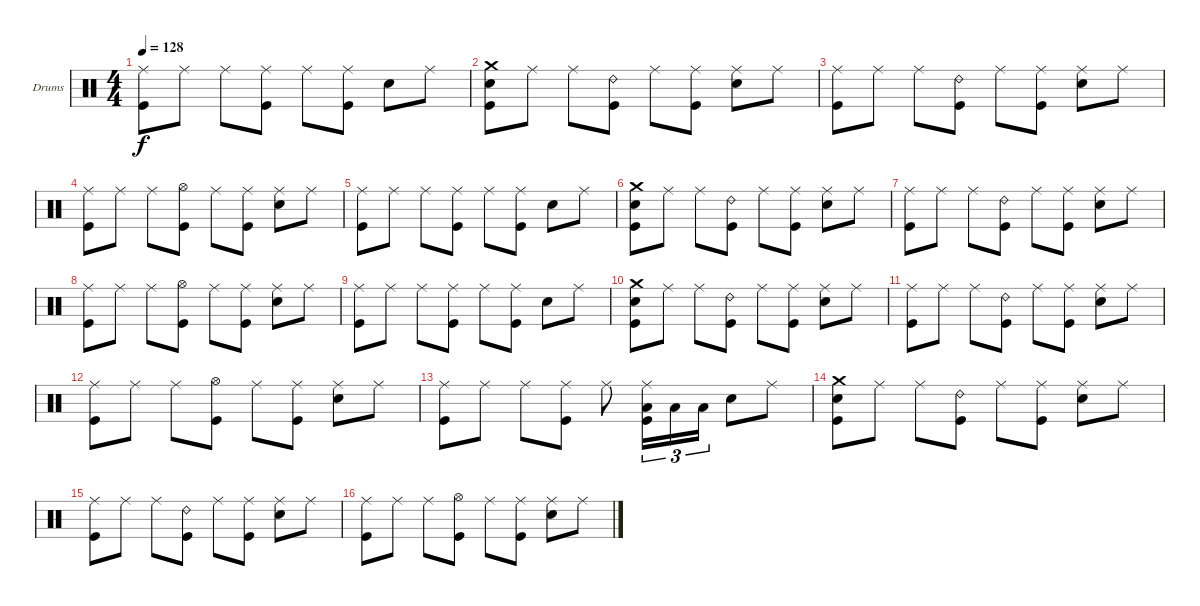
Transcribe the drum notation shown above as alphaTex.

\defaultSystemsLayout 4
\bracketExtendMode nobrackets
\firstSystemTrackNameOrientation horizontal
\otherSystemsTrackNameOrientation horizontal
\track ("Dave Krusen" "Drums") {instrument percussion}
\staff {score}
\articulation defaults
\ts (4 4)
\tempo 128
\clef neutral
\ks c
("Ride (middle)" "Kick (hit)").8{dy f} "Ride (middle)".8 "Ride (middle)".8 ("Ride (middle)" "Kick (hit)").8 "Ride (middle)".8 ("Ride (middle)" "Kick (hit)").8 "Snare (hit) 2".8 "Ride (middle)".8 |
("Crash medium (hit)" "Snare (hit) 2" "Kick (hit)").8 "Ride (middle)".8 "Ride (middle)".8 ("Ride (bell) 2" "Kick (hit)").8 "Ride (middle)".8 ("Ride (middle)" "Kick (hit)").8 ("Ride (middle)" "Snare (hit) 2").8 "Ride (middle)".8 |
("Ride (middle)" "Kick (hit)").8 "Ride (middle)".8 "Ride (middle)".8 ("Ride (bell) 2" "Kick (hit)").8 "Ride (middle)".8 ("Ride (middle)" "Kick (hit)").8 ("Ride (middle)" "Snare (hit) 2").8 "Ride (middle)".8 |
("Ride (middle)" "Kick (hit)").8 "Ride (middle)".8 "Ride (middle)".8 ("Hi-Hat (open)" "Kick (hit)").8 "Ride (middle)".8 ("Ride (middle)" "Kick (hit)").8 ("Ride (middle)" "Snare (hit) 2").8 "Ride (middle)".8 |
("Ride (middle)" "Kick (hit)").8 "Ride (middle)".8 "Ride (middle)".8 ("Ride (middle)" "Kick (hit)").8 "Ride (middle)".8 ("Ride (middle)" "Kick (hit)").8 "Snare (hit) 2".8 "Ride (middle)".8 |
("Crash medium (hit)" "Snare (hit) 2" "Kick (hit)").8 "Ride (middle)".8 "Ride (middle)".8 ("Ride (bell) 2" "Kick (hit)").8 "Ride (middle)".8 ("Ride (middle)" "Kick (hit)").8 ("Ride (middle)" "Snare (hit) 2").8 "Ride (middle)".8 |
("Ride (middle)" "Kick (hit)").8 "Ride (middle)".8 "Ride (middle)".8 ("Ride (bell) 2" "Kick (hit)").8 "Ride (middle)".8 ("Ride (middle)" "Kick (hit)").8 ("Ride (middle)" "Snare (hit) 2").8 "Ride (middle)".8 |
("Ride (middle)" "Kick (hit)").8 "Ride (middle)".8 "Ride (middle)".8 ("Hi-Hat (open)" "Kick (hit)").8 "Ride (middle)".8 ("Ride (middle)" "Kick (hit)").8 ("Ride (middle)" "Snare (hit) 2").8 "Ride (middle)".8 |
("Ride (middle)" "Kick (hit)").8 "Ride (middle)".8 "Ride (middle)".8 ("Ride (middle)" "Kick (hit)").8 "Ride (middle)".8 ("Ride (middle)" "Kick (hit)").8 "Snare (hit) 2".8 "Ride (middle)".8 |
("Crash medium (hit)" "Snare (hit) 2" "Kick (hit)").8 "Ride (middle)".8 "Ride (middle)".8 ("Ride (bell) 2" "Kick (hit)").8 "Ride (middle)".8 ("Ride (middle)" "Kick (hit)").8 ("Ride (middle)" "Snare (hit) 2").8 "Ride (middle)".8 |
("Ride (middle)" "Kick (hit)").8 "Ride (middle)".8 "Ride (middle)".8 ("Ride (bell) 2" "Kick (hit)").8 "Ride (middle)".8 ("Ride (middle)" "Kick (hit)").8 ("Ride (middle)" "Snare (hit) 2").8 "Ride (middle)".8 |
("Ride (middle)" "Kick (hit)").8 "Ride (middle)".8 "Ride (middle)".8 ("Hi-Hat (open)" "Kick (hit)").8 "Ride (middle)".8 ("Ride (middle)" "Kick (hit)").8 ("Ride (middle)" "Snare (hit) 2").8 "Ride (middle)".8 |
("Ride (middle)" "Kick (hit)").8 "Ride (middle)".8 "Ride (middle)".8 ("Ride (middle)" "Kick (hit)").8 "Ride (middle)".8 ("Ride (middle)" "Low Tom (hit)" "Kick (hit)").16{tu (3 2)} "Low Tom (hit)".16{tu (3 2)} "Low Tom (hit)".16{tu (3 2)} "Snare (hit) 2".8 "Ride (middle)".8 |
("Crash medium (hit)" "Snare (hit) 2" "Kick (hit)").8 "Ride (middle)".8 "Ride (middle)".8 ("Ride (bell) 2" "Kick (hit)").8 "Ride (middle)".8 ("Ride (middle)" "Kick (hit)").8 ("Ride (middle)" "Snare (hit) 2").8 "Ride (middle)".8 |
("Ride (middle)" "Kick (hit)").8 "Ride (middle)".8 "Ride (middle)".8 ("Ride (bell) 2" "Kick (hit)").8 "Ride (middle)".8 ("Ride (middle)" "Kick (hit)").8 ("Ride (middle)" "Snare (hit) 2").8 "Ride (middle)".8 |
("Ride (middle)" "Kick (hit)").8 "Ride (middle)".8 "Ride (middle)".8 ("Hi-Hat (open)" "Kick (hit)").8 "Ride (middle)".8 ("Ride (middle)" "Kick (hit)").8 ("Ride (middle)" "Snare (hit) 2").8 "Ride (middle)".8
